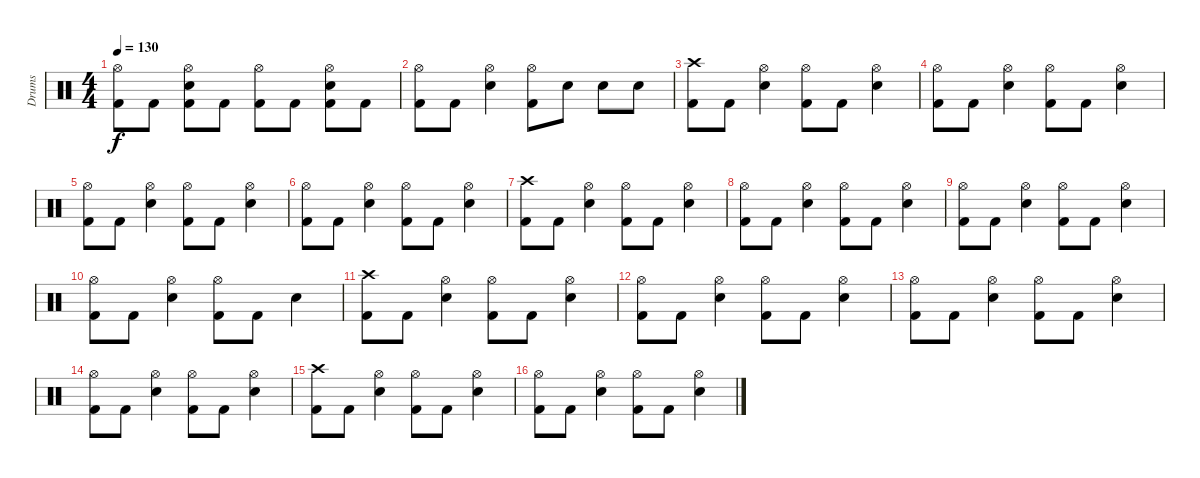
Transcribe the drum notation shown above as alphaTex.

\track ("Drums" "Drums") {instrument percussion}
\staff {score}
\articulation defaults
\ts (4 4)
\tempo 130
\clef neutral
\ks c
("Hi-Hat (open)" "Kick (hit) 2").8{dy f} "Kick (hit) 2".8 ("Hi-Hat (open)" "Electric Snare (hit)" "Kick (hit) 2").8 "Kick (hit) 2".8 ("Hi-Hat (open)" "Kick (hit) 2").8 "Kick (hit) 2".8 ("Hi-Hat (open)" "Electric Snare (hit)" "Kick (hit) 2").8 "Kick (hit) 2".8 |
("Hi-Hat (open)" "Kick (hit) 2").8 "Kick (hit) 2".8 ("Hi-Hat (open)" "Electric Snare (hit)").4 ("Hi-Hat (open)" "Kick (hit) 2").8 "Electric Snare (hit)".8 "Electric Snare (hit)".8 "Electric Snare (hit)".8 |
("Crash high (hit)" "Kick (hit) 2").8 "Kick (hit) 2".8 ("Hi-Hat (open)" "Electric Snare (hit)").4 ("Hi-Hat (open)" "Kick (hit) 2").8 "Kick (hit) 2".8 ("Hi-Hat (open)" "Electric Snare (hit)").4 |
("Hi-Hat (open)" "Kick (hit) 2").8 "Kick (hit) 2".8 ("Hi-Hat (open)" "Electric Snare (hit)").4 ("Hi-Hat (open)" "Kick (hit) 2").8 "Kick (hit) 2".8 ("Hi-Hat (open)" "Electric Snare (hit)").4 |
("Hi-Hat (open)" "Kick (hit) 2").8 "Kick (hit) 2".8 ("Hi-Hat (open)" "Electric Snare (hit)").4 ("Hi-Hat (open)" "Kick (hit) 2").8 "Kick (hit) 2".8 ("Hi-Hat (open)" "Electric Snare (hit)").4 |
("Hi-Hat (open)" "Kick (hit) 2").8 "Kick (hit) 2".8 ("Hi-Hat (open)" "Electric Snare (hit)").4 ("Hi-Hat (open)" "Kick (hit) 2").8 "Kick (hit) 2".8 ("Hi-Hat (open)" "Electric Snare (hit)").4 |
("Crash high (hit)" "Kick (hit) 2").8 "Kick (hit) 2".8 ("Hi-Hat (open)" "Electric Snare (hit)").4 ("Hi-Hat (open)" "Kick (hit) 2").8 "Kick (hit) 2".8 ("Hi-Hat (open)" "Electric Snare (hit)").4 |
("Hi-Hat (open)" "Kick (hit) 2").8 "Kick (hit) 2".8 ("Hi-Hat (open)" "Electric Snare (hit)").4 ("Hi-Hat (open)" "Kick (hit) 2").8 "Kick (hit) 2".8 ("Hi-Hat (open)" "Electric Snare (hit)").4 |
("Hi-Hat (open)" "Kick (hit) 2").8 "Kick (hit) 2".8 ("Hi-Hat (open)" "Electric Snare (hit)").4 ("Hi-Hat (open)" "Kick (hit) 2").8 "Kick (hit) 2".8 ("Hi-Hat (open)" "Electric Snare (hit)").4 |
("Hi-Hat (open)" "Kick (hit) 2").8 "Kick (hit) 2".8 ("Hi-Hat (open)" "Electric Snare (hit)").4 ("Hi-Hat (open)" "Kick (hit) 2").8 "Kick (hit) 2".8 "Electric Snare (hit)".4 |
("Crash high (hit)" "Kick (hit) 2").8 "Kick (hit) 2".8 ("Hi-Hat (open)" "Electric Snare (hit)").4 ("Hi-Hat (open)" "Kick (hit) 2").8 "Kick (hit) 2".8 ("Hi-Hat (open)" "Electric Snare (hit)").4 |
("Hi-Hat (open)" "Kick (hit) 2").8 "Kick (hit) 2".8 ("Hi-Hat (open)" "Electric Snare (hit)").4 ("Hi-Hat (open)" "Kick (hit) 2").8 "Kick (hit) 2".8 ("Hi-Hat (open)" "Electric Snare (hit)").4 |
("Hi-Hat (open)" "Kick (hit) 2").8 "Kick (hit) 2".8 ("Hi-Hat (open)" "Electric Snare (hit)").4 ("Hi-Hat (open)" "Kick (hit) 2").8 "Kick (hit) 2".8 ("Hi-Hat (open)" "Electric Snare (hit)").4 |
("Hi-Hat (open)" "Kick (hit) 2").8 "Kick (hit) 2".8 ("Hi-Hat (open)" "Electric Snare (hit)").4 ("Hi-Hat (open)" "Kick (hit) 2").8 "Kick (hit) 2".8 ("Hi-Hat (open)" "Electric Snare (hit)").4 |
("Crash high (hit)" "Kick (hit) 2").8 "Kick (hit) 2".8 ("Hi-Hat (open)" "Electric Snare (hit)").4 ("Hi-Hat (open)" "Kick (hit) 2").8 "Kick (hit) 2".8 ("Hi-Hat (open)" "Electric Snare (hit)").4 |
("Hi-Hat (open)" "Kick (hit) 2").8 "Kick (hit) 2".8 ("Hi-Hat (open)" "Electric Snare (hit)").4 ("Hi-Hat (open)" "Kick (hit) 2").8 "Kick (hit) 2".8 ("Hi-Hat (open)" "Electric Snare (hit)").4
